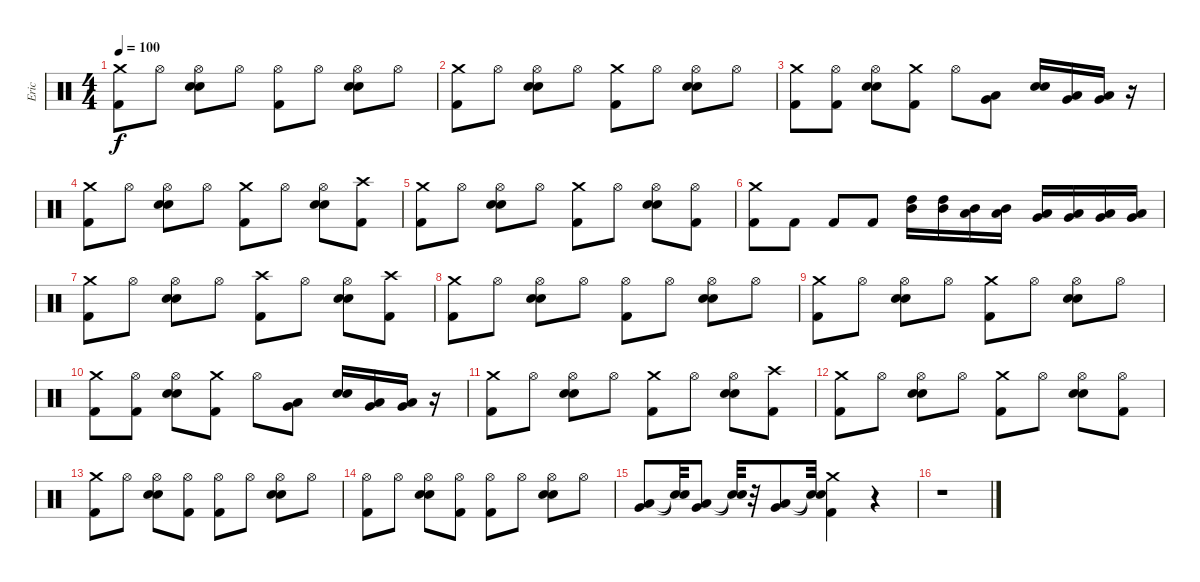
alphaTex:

\track ("Eric" "Eric") {instrument percussion}
\staff {score}
\articulation defaults
\ts (4 4)
\tempo 100
\clef neutral
\ks c
("Crash medium (hit)" "Kick (hit) 2").8{dy f} "Hi-Hat (open)".8 ("Hi-Hat (open)" "Electric Snare (hit)" "Snare (hit) 2").8 "Hi-Hat (open)".8 ("Hi-Hat (open)" "Kick (hit) 2").8 "Hi-Hat (open)".8 ("Hi-Hat (open)" "Electric Snare (hit)" "Snare (hit) 2").8 "Hi-Hat (open)".8 |
("Crash medium (hit)" "Kick (hit) 2").8 "Hi-Hat (open)".8 ("Hi-Hat (open)" "Electric Snare (hit)" "Snare (hit) 2").8 "Hi-Hat (open)".8 ("Crash medium (hit)" "Kick (hit) 2").8 "Hi-Hat (open)".8 ("Hi-Hat (open)" "Electric Snare (hit)" "Snare (hit) 2").8 "Hi-Hat (open)".8 |
("Crash medium (hit)" "Kick (hit) 2").8 ("Kick (hit) 2" "Hi-Hat (open)").8 ("Hi-Hat (open)" "Electric Snare (hit)" "Snare (hit) 2").8 ("Crash medium (hit)" "Kick (hit) 2").8 "Hi-Hat (open)".8 ("Low Tom (hit)" "Very Low Tom (hit)").8 ("Snare (hit) 2" "Electric Snare (hit)").16 ("Very Low Tom (hit)" "Low Tom (hit)").16 ("Very Low Tom (hit)" "Low Tom (hit)").16 r.16 |
("Crash medium (hit)" "Kick (hit) 2").8 "Hi-Hat (open)".8 ("Hi-Hat (open)" "Electric Snare (hit)" "Snare (hit) 2").8 "Hi-Hat (open)".8 ("Crash medium (hit)" "Kick (hit) 2").8 "Hi-Hat (open)".8 ("Hi-Hat (open)" "Electric Snare (hit)" "Snare (hit) 2").8 ("Kick (hit) 2" "Crash high (hit)").8 |
("Crash medium (hit)" "Kick (hit) 2").8 "Hi-Hat (open)".8 ("Hi-Hat (open)" "Electric Snare (hit)" "Snare (hit) 2").8 "Hi-Hat (open)".8 ("Crash medium (hit)" "Kick (hit) 2").8 "Hi-Hat (open)".8 ("Hi-Hat (open)" "Electric Snare (hit)" "Snare (hit) 2").8 ("Kick (hit) 2" "Hi-Hat (open)").8 |
("Crash medium (hit)" "Kick (hit) 2").8 "Kick (hit) 2".8 "Kick (hit) 2".8 "Kick (hit) 2".8 ("Mid Tom (hit)" "High Tom (hit)").16 ("Mid Tom (hit)" "High Tom (hit)").16 ("Low Tom (hit)" "Mid Tom (hit)").16 ("Low Tom (hit)" "Mid Tom (hit)").16 ("Low Tom (hit)" "Very Low Tom (hit)").16 ("Low Tom (hit)" "Very Low Tom (hit)").16 ("Very Low Tom (hit)" "Low Floor Tom (hit)").16 ("Very Low Tom (hit)" "Low Floor Tom (hit)").16 |
("Crash medium (hit)" "Kick (hit) 2").8 "Hi-Hat (open)".8 ("Hi-Hat (open)" "Electric Snare (hit)" "Snare (hit) 2").8 "Hi-Hat (open)".8 ("Crash high (hit)" "Kick (hit) 2").8 "Hi-Hat (open)".8 ("Hi-Hat (open)" "Electric Snare (hit)" "Snare (hit) 2").8 ("Kick (hit) 2" "Crash high (hit)").8 |
("Crash medium (hit)" "Kick (hit) 2").8 "Hi-Hat (open)".8 ("Hi-Hat (open)" "Electric Snare (hit)" "Snare (hit) 2").8 "Hi-Hat (open)".8 ("Hi-Hat (open)" "Kick (hit) 2").8 "Hi-Hat (open)".8 ("Hi-Hat (open)" "Electric Snare (hit)" "Snare (hit) 2").8 "Hi-Hat (open)".8 |
("Crash medium (hit)" "Kick (hit) 2").8 "Hi-Hat (open)".8 ("Hi-Hat (open)" "Electric Snare (hit)" "Snare (hit) 2").8 "Hi-Hat (open)".8 ("Crash medium (hit)" "Kick (hit) 2").8 "Hi-Hat (open)".8 ("Hi-Hat (open)" "Electric Snare (hit)" "Snare (hit) 2").8 "Hi-Hat (open)".8 |
("Crash medium (hit)" "Kick (hit) 2").8 ("Kick (hit) 2" "Hi-Hat (open)").8 ("Hi-Hat (open)" "Electric Snare (hit)" "Snare (hit) 2").8 ("Crash medium (hit)" "Kick (hit) 2").8 "Hi-Hat (open)".8 ("Low Tom (hit)" "Very Low Tom (hit)").8 ("Snare (hit) 2" "Electric Snare (hit)").16 ("Very Low Tom (hit)" "Low Tom (hit)").16 ("Very Low Tom (hit)" "Low Tom (hit)").16 r.16 |
("Crash medium (hit)" "Kick (hit) 2").8 "Hi-Hat (open)".8 ("Hi-Hat (open)" "Electric Snare (hit)" "Snare (hit) 2").8 "Hi-Hat (open)".8 ("Crash medium (hit)" "Kick (hit) 2").8 "Hi-Hat (open)".8 ("Hi-Hat (open)" "Electric Snare (hit)" "Snare (hit) 2").8 ("Kick (hit) 2" "Crash high (hit)").8 |
("Crash medium (hit)" "Kick (hit) 2").8 "Hi-Hat (open)".8 ("Hi-Hat (open)" "Electric Snare (hit)" "Snare (hit) 2").8 "Hi-Hat (open)".8 ("Crash medium (hit)" "Kick (hit) 2").8 "Hi-Hat (open)".8 ("Hi-Hat (open)" "Electric Snare (hit)" "Snare (hit) 2").8 ("Kick (hit) 2" "Hi-Hat (open)").8 |
("Crash medium (hit)" "Kick (hit) 2").8 "Hi-Hat (open)".8 ("Hi-Hat (open)" "Electric Snare (hit)" "Snare (hit) 2").8 ("Hi-Hat (open)" "Kick (hit) 2").8 ("Hi-Hat (open)" "Kick (hit) 2").8 "Hi-Hat (open)".8 ("Hi-Hat (open)" "Snare (hit) 2" "Electric Snare (hit)").8 "Hi-Hat (open)".8 |
("Hi-Hat (open)" "Kick (hit) 2").8 "Hi-Hat (open)".8 ("Hi-Hat (open)" "Snare (hit) 2" "Electric Snare (hit)").8 ("Hi-Hat (open)" "Kick (hit) 2").8 ("Hi-Hat (open)" "Kick (hit) 2").8 "Hi-Hat (open)".8 ("Hi-Hat (open)" "Electric Snare (hit)" "Snare (hit) 2").8 "Hi-Hat (open)".8 |
("Low Tom (hit)" "Very Low Tom (hit)").8 ("Snare (hit)"{t} "Snare (hit)"{t}).32 ("Low Tom (hit)" "Very Low Tom (hit)").8 ("Snare (hit)"{t} "Snare (hit)"{t}).32 r.32 ("Low Tom (hit)" "Very Low Tom (hit)").8 ("Snare (hit)"{t} "Snare (hit)"{t}).32 ("Crash medium (hit)" "Kick (hit) 2").4 r.4 |
r.1
